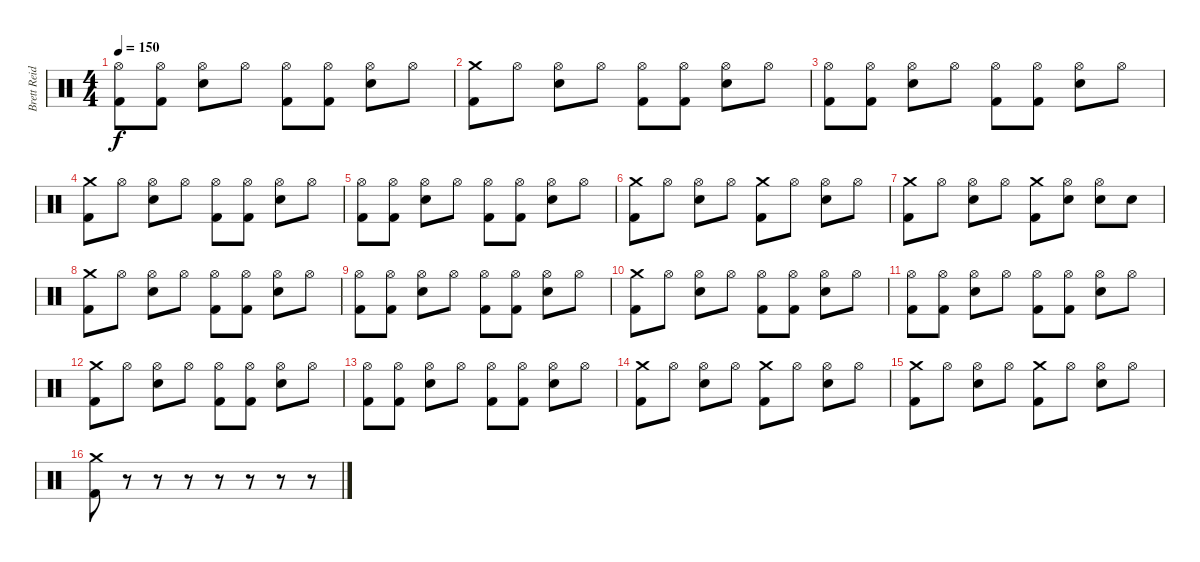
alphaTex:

\track ("Brett Reid" "Brett Reid") {instrument percussion}
\staff {score}
\articulation defaults
\ts (4 4)
\tempo 150
\clef neutral
\ks c
("Hi-Hat (open)" "Kick (hit) 2").8{dy f} ("Hi-Hat (open)" "Kick (hit) 2").8 ("Hi-Hat (open)" "Snare (hit) 2").8 "Hi-Hat (open)".8 ("Hi-Hat (open)" "Kick (hit) 2").8 ("Hi-Hat (open)" "Kick (hit) 2").8 ("Hi-Hat (open)" "Snare (hit) 2").8 "Hi-Hat (open)".8 |
("Crash medium (hit)" "Kick (hit) 2").8 "Hi-Hat (open)".8 ("Hi-Hat (open)" "Snare (hit) 2").8 "Hi-Hat (open)".8 ("Hi-Hat (open)" "Kick (hit) 2").8 ("Hi-Hat (open)" "Kick (hit) 2").8 ("Hi-Hat (open)" "Snare (hit) 2").8 "Hi-Hat (open)".8 |
("Hi-Hat (open)" "Kick (hit) 2").8 ("Hi-Hat (open)" "Kick (hit) 2").8 ("Hi-Hat (open)" "Snare (hit) 2").8 "Hi-Hat (open)".8 ("Hi-Hat (open)" "Kick (hit) 2").8 ("Hi-Hat (open)" "Kick (hit) 2").8 ("Hi-Hat (open)" "Snare (hit) 2").8 "Hi-Hat (open)".8 |
("Crash medium (hit)" "Kick (hit) 2").8 "Hi-Hat (open)".8 ("Hi-Hat (open)" "Snare (hit) 2").8 "Hi-Hat (open)".8 ("Hi-Hat (open)" "Kick (hit) 2").8 ("Hi-Hat (open)" "Kick (hit) 2").8 ("Hi-Hat (open)" "Snare (hit) 2").8 "Hi-Hat (open)".8 |
("Hi-Hat (open)" "Kick (hit) 2").8 ("Hi-Hat (open)" "Kick (hit) 2").8 ("Hi-Hat (open)" "Snare (hit) 2").8 "Hi-Hat (open)".8 ("Hi-Hat (open)" "Kick (hit) 2").8 ("Hi-Hat (open)" "Kick (hit) 2").8 ("Hi-Hat (open)" "Snare (hit) 2").8 "Hi-Hat (open)".8 |
("Crash medium (hit)" "Kick (hit) 2").8 "Hi-Hat (open)".8 ("Hi-Hat (open)" "Snare (hit) 2").8 "Hi-Hat (open)".8 ("Crash medium (hit)" "Kick (hit) 2").8 "Hi-Hat (open)".8 ("Hi-Hat (open)" "Snare (hit) 2").8 "Hi-Hat (open)".8 |
("Crash medium (hit)" "Kick (hit) 2").8 "Hi-Hat (open)".8 ("Hi-Hat (open)" "Snare (hit) 2").8 "Hi-Hat (open)".8 ("Crash medium (hit)" "Kick (hit) 2").8 ("Hi-Hat (open)" "Snare (hit) 2").8 ("Hi-Hat (open)" "Snare (hit) 2").8 "Snare (hit) 2".8 |
("Crash medium (hit)" "Kick (hit) 2").8 "Hi-Hat (open)".8 ("Hi-Hat (open)" "Snare (hit) 2").8 "Hi-Hat (open)".8 ("Hi-Hat (open)" "Kick (hit) 2").8 ("Hi-Hat (open)" "Kick (hit) 2").8 ("Hi-Hat (open)" "Snare (hit) 2").8 "Hi-Hat (open)".8 |
("Hi-Hat (open)" "Kick (hit) 2").8 ("Hi-Hat (open)" "Kick (hit) 2").8 ("Hi-Hat (open)" "Snare (hit) 2").8 "Hi-Hat (open)".8 ("Hi-Hat (open)" "Kick (hit) 2").8 ("Hi-Hat (open)" "Kick (hit) 2").8 ("Hi-Hat (open)" "Snare (hit) 2").8 "Hi-Hat (open)".8 |
("Crash medium (hit)" "Kick (hit) 2").8 "Hi-Hat (open)".8 ("Hi-Hat (open)" "Snare (hit) 2").8 "Hi-Hat (open)".8 ("Hi-Hat (open)" "Kick (hit) 2").8 ("Hi-Hat (open)" "Kick (hit) 2").8 ("Hi-Hat (open)" "Snare (hit) 2").8 "Hi-Hat (open)".8 |
("Hi-Hat (open)" "Kick (hit) 2").8 ("Hi-Hat (open)" "Kick (hit) 2").8 ("Hi-Hat (open)" "Snare (hit) 2").8 "Hi-Hat (open)".8 ("Hi-Hat (open)" "Kick (hit) 2").8 ("Hi-Hat (open)" "Kick (hit) 2").8 ("Hi-Hat (open)" "Snare (hit) 2").8 "Hi-Hat (open)".8 |
("Crash medium (hit)" "Kick (hit) 2").8 "Hi-Hat (open)".8 ("Hi-Hat (open)" "Snare (hit) 2").8 "Hi-Hat (open)".8 ("Hi-Hat (open)" "Kick (hit) 2").8 ("Hi-Hat (open)" "Kick (hit) 2").8 ("Hi-Hat (open)" "Snare (hit) 2").8 "Hi-Hat (open)".8 |
("Hi-Hat (open)" "Kick (hit) 2").8 ("Hi-Hat (open)" "Kick (hit) 2").8 ("Hi-Hat (open)" "Snare (hit) 2").8 "Hi-Hat (open)".8 ("Hi-Hat (open)" "Kick (hit) 2").8 ("Hi-Hat (open)" "Kick (hit) 2").8 ("Hi-Hat (open)" "Snare (hit) 2").8 "Hi-Hat (open)".8 |
("Crash medium (hit)" "Kick (hit) 2").8 "Hi-Hat (open)".8 ("Hi-Hat (open)" "Snare (hit) 2").8 "Hi-Hat (open)".8 ("Crash medium (hit)" "Kick (hit) 2").8 "Hi-Hat (open)".8 ("Hi-Hat (open)" "Snare (hit) 2").8 "Hi-Hat (open)".8 |
("Crash medium (hit)" "Kick (hit) 2").8 "Hi-Hat (open)".8 ("Hi-Hat (open)" "Snare (hit) 2").8 "Hi-Hat (open)".8 ("Crash medium (hit)" "Kick (hit) 2").8 "Hi-Hat (open)".8 ("Hi-Hat (open)" "Snare (hit) 2").8 "Hi-Hat (open)".8 |
("Crash medium (hit)" "Kick (hit) 2").8 r.8 r.8 r.8 r.8 r.8 r.8 r.8
